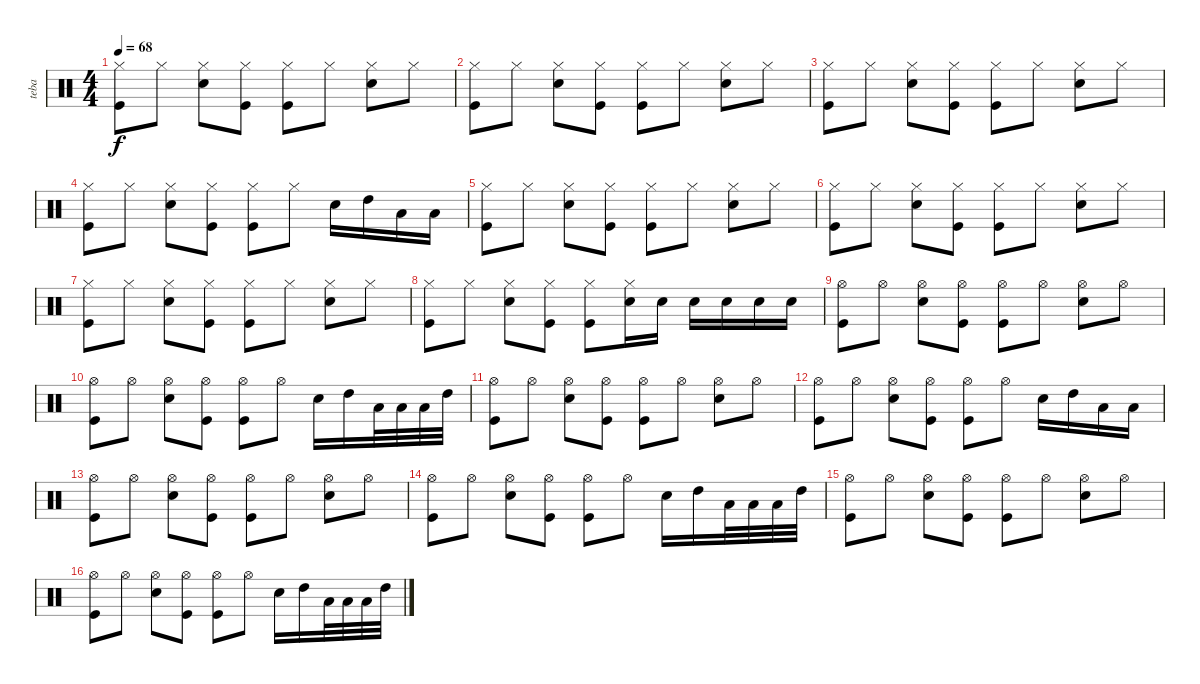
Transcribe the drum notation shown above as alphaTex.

\track ("teba" "teba") {instrument percussion}
\staff {score}
\articulation defaults
\ts (4 4)
\tempo 68
\clef neutral
\ks c
("Hi-Hat (closed)" "Kick (hit)").8{dy f} "Hi-Hat (closed)".8 ("Hi-Hat (closed)" "Electric Snare (hit)").8 ("Hi-Hat (closed)" "Kick (hit)").8 ("Hi-Hat (closed)" "Kick (hit)").8 "Hi-Hat (closed)".8 ("Hi-Hat (closed)" "Electric Snare (hit)").8 "Hi-Hat (closed)".8 |
("Hi-Hat (closed)" "Kick (hit)").8 "Hi-Hat (closed)".8 ("Hi-Hat (closed)" "Electric Snare (hit)").8 ("Hi-Hat (closed)" "Kick (hit)").8 ("Hi-Hat (closed)" "Kick (hit)").8 "Hi-Hat (closed)".8 ("Hi-Hat (closed)" "Electric Snare (hit)").8 "Hi-Hat (closed)".8 |
("Hi-Hat (closed)" "Kick (hit)").8 "Hi-Hat (closed)".8 ("Hi-Hat (closed)" "Electric Snare (hit)").8 ("Hi-Hat (closed)" "Kick (hit)").8 ("Hi-Hat (closed)" "Kick (hit)").8 "Hi-Hat (closed)".8 ("Hi-Hat (closed)" "Electric Snare (hit)").8 "Hi-Hat (closed)".8 |
("Hi-Hat (closed)" "Kick (hit)").8 "Hi-Hat (closed)".8 ("Hi-Hat (closed)" "Electric Snare (hit)").8 ("Hi-Hat (closed)" "Kick (hit)").8 ("Hi-Hat (closed)" "Kick (hit)").8 "Hi-Hat (closed)".8 "Electric Snare (hit)".16 "High Tom (hit)".16 "Low Tom (hit)".16 "Low Floor Tom (hit)".16 |
("Hi-Hat (closed)" "Kick (hit)").8 "Hi-Hat (closed)".8 ("Hi-Hat (closed)" "Electric Snare (hit)").8 ("Hi-Hat (closed)" "Kick (hit)").8 ("Hi-Hat (closed)" "Kick (hit)").8 "Hi-Hat (closed)".8 ("Hi-Hat (closed)" "Electric Snare (hit)").8 "Hi-Hat (closed)".8 |
("Hi-Hat (closed)" "Kick (hit)").8 "Hi-Hat (closed)".8 ("Hi-Hat (closed)" "Electric Snare (hit)").8 ("Hi-Hat (closed)" "Kick (hit)").8 ("Hi-Hat (closed)" "Kick (hit)").8 "Hi-Hat (closed)".8 ("Hi-Hat (closed)" "Electric Snare (hit)").8 "Hi-Hat (closed)".8 |
("Hi-Hat (closed)" "Kick (hit)").8 "Hi-Hat (closed)".8 ("Hi-Hat (closed)" "Electric Snare (hit)").8 ("Hi-Hat (closed)" "Kick (hit)").8 ("Hi-Hat (closed)" "Kick (hit)").8 "Hi-Hat (closed)".8 ("Hi-Hat (closed)" "Electric Snare (hit)").8 "Hi-Hat (closed)".8 |
("Hi-Hat (closed)" "Kick (hit)").8 "Hi-Hat (closed)".8 ("Hi-Hat (closed)" "Electric Snare (hit)").8 ("Hi-Hat (closed)" "Kick (hit)").8 ("Hi-Hat (closed)" "Kick (hit)").8 ("Hi-Hat (closed)" "Electric Snare (hit)").16 "Electric Snare (hit)".16 "Electric Snare (hit)".16 "Electric Snare (hit)".16 "Electric Snare (hit)".16 "Electric Snare (hit)".16 |
("Hi-Hat (open)" "Kick (hit)").8 "Hi-Hat (open)".8 ("Hi-Hat (open)" "Electric Snare (hit)").8 ("Hi-Hat (open)" "Kick (hit)").8 ("Hi-Hat (open)" "Kick (hit)").8 "Hi-Hat (open)".8 ("Hi-Hat (open)" "Electric Snare (hit)").8 "Hi-Hat (open)".8 |
("Hi-Hat (open)" "Kick (hit)").8 "Hi-Hat (open)".8 ("Hi-Hat (open)" "Electric Snare (hit)").8 ("Hi-Hat (open)" "Kick (hit)").8 ("Hi-Hat (open)" "Kick (hit)").8 "Hi-Hat (open)".8 "Electric Snare (hit)".16 "High Tom (hit)".16 "Low Tom (hit)".32 "Low Floor Tom (hit)".32 "Low Floor Tom (hit)".32 "High Tom (hit)".32 |
("Hi-Hat (open)" "Kick (hit)").8 "Hi-Hat (open)".8 ("Hi-Hat (open)" "Electric Snare (hit)").8 ("Hi-Hat (open)" "Kick (hit)").8 ("Hi-Hat (open)" "Kick (hit)").8 "Hi-Hat (open)".8 ("Hi-Hat (open)" "Electric Snare (hit)").8 "Hi-Hat (open)".8 |
("Hi-Hat (open)" "Kick (hit)").8 "Hi-Hat (open)".8 ("Hi-Hat (open)" "Electric Snare (hit)").8 ("Hi-Hat (open)" "Kick (hit)").8 ("Hi-Hat (open)" "Kick (hit)").8 "Hi-Hat (open)".8 "Electric Snare (hit)".16 "High Tom (hit)".16 "Low Tom (hit)".16 "Low Floor Tom (hit)".16 |
("Hi-Hat (open)" "Kick (hit)").8 "Hi-Hat (open)".8 ("Hi-Hat (open)" "Electric Snare (hit)").8 ("Hi-Hat (open)" "Kick (hit)").8 ("Hi-Hat (open)" "Kick (hit)").8 "Hi-Hat (open)".8 ("Hi-Hat (open)" "Electric Snare (hit)").8 "Hi-Hat (open)".8 |
("Hi-Hat (open)" "Kick (hit)").8 "Hi-Hat (open)".8 ("Hi-Hat (open)" "Electric Snare (hit)").8 ("Hi-Hat (open)" "Kick (hit)").8 ("Hi-Hat (open)" "Kick (hit)").8 "Hi-Hat (open)".8 "Electric Snare (hit)".16 "High Tom (hit)".16 "Low Tom (hit)".32 "Low Floor Tom (hit)".32 "Low Floor Tom (hit)".32 "High Tom (hit)".32 |
("Hi-Hat (open)" "Kick (hit)").8 "Hi-Hat (open)".8 ("Hi-Hat (open)" "Electric Snare (hit)").8 ("Hi-Hat (open)" "Kick (hit)").8 ("Hi-Hat (open)" "Kick (hit)").8 "Hi-Hat (open)".8 ("Hi-Hat (open)" "Electric Snare (hit)").8 "Hi-Hat (open)".8 |
("Hi-Hat (open)" "Kick (hit)").8 "Hi-Hat (open)".8 ("Hi-Hat (open)" "Electric Snare (hit)").8 ("Hi-Hat (open)" "Kick (hit)").8 ("Hi-Hat (open)" "Kick (hit)").8 "Hi-Hat (open)".8 "Electric Snare (hit)".16 "High Tom (hit)".16 "Low Tom (hit)".32 "Low Floor Tom (hit)".32 "Low Floor Tom (hit)".32 "High Tom (hit)".32
